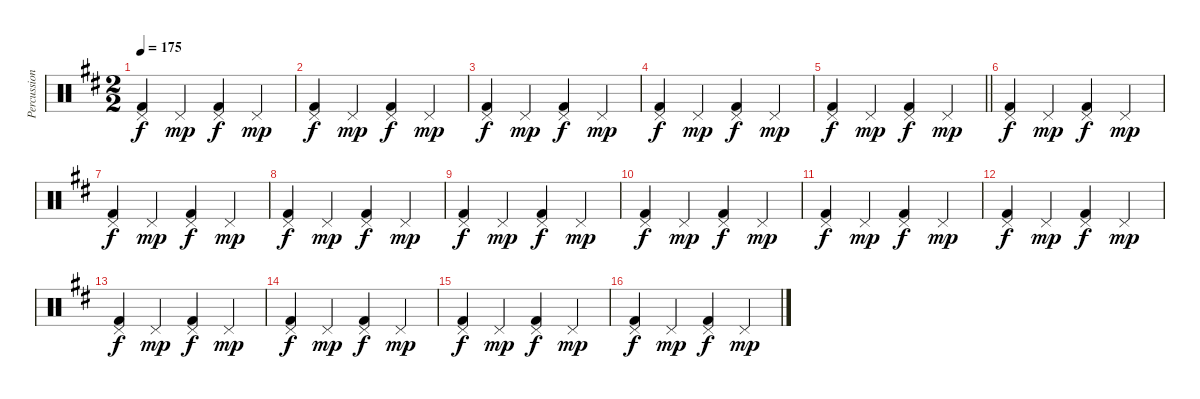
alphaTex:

\track ("Percussion" "Percussion") {instrument percussion}
\staff {score}
\articulation defaults
\ts (2 2)
\tempo 175
\clef neutral
\ks d
("Pedal Hi-Hat (hit)" "Kick (hit) 2").4{dy f} "Pedal Hi-Hat (hit)".4{dy mp} ("Pedal Hi-Hat (hit)" "Kick (hit) 2").4{dy f} "Pedal Hi-Hat (hit)".4{dy mp} |
("Pedal Hi-Hat (hit)" "Kick (hit) 2").4{dy f} "Pedal Hi-Hat (hit)".4{dy mp} ("Pedal Hi-Hat (hit)" "Kick (hit) 2").4{dy f} "Pedal Hi-Hat (hit)".4{dy mp} |
("Pedal Hi-Hat (hit)" "Kick (hit) 2").4{dy f} "Pedal Hi-Hat (hit)".4{dy mp} ("Pedal Hi-Hat (hit)" "Kick (hit) 2").4{dy f} "Pedal Hi-Hat (hit)".4{dy mp} |
("Pedal Hi-Hat (hit)" "Kick (hit) 2").4{dy f} "Pedal Hi-Hat (hit)".4{dy mp} ("Pedal Hi-Hat (hit)" "Kick (hit) 2").4{dy f} "Pedal Hi-Hat (hit)".4{dy mp} |
\barLineRight lightlight
("Pedal Hi-Hat (hit)" "Kick (hit) 2").4{dy f} "Pedal Hi-Hat (hit)".4{dy mp} ("Pedal Hi-Hat (hit)" "Kick (hit) 2").4{dy f} "Pedal Hi-Hat (hit)".4{dy mp} |
("Pedal Hi-Hat (hit)" "Kick (hit) 2").4{dy f} "Pedal Hi-Hat (hit)".4{dy mp} ("Pedal Hi-Hat (hit)" "Kick (hit) 2").4{dy f} "Pedal Hi-Hat (hit)".4{dy mp} |
("Pedal Hi-Hat (hit)" "Kick (hit) 2").4{dy f} "Pedal Hi-Hat (hit)".4{dy mp} ("Pedal Hi-Hat (hit)" "Kick (hit) 2").4{dy f} "Pedal Hi-Hat (hit)".4{dy mp} |
("Pedal Hi-Hat (hit)" "Kick (hit) 2").4{dy f} "Pedal Hi-Hat (hit)".4{dy mp} ("Pedal Hi-Hat (hit)" "Kick (hit) 2").4{dy f} "Pedal Hi-Hat (hit)".4{dy mp} |
("Pedal Hi-Hat (hit)" "Kick (hit) 2").4{dy f} "Pedal Hi-Hat (hit)".4{dy mp} ("Pedal Hi-Hat (hit)" "Kick (hit) 2").4{dy f} "Pedal Hi-Hat (hit)".4{dy mp} |
("Pedal Hi-Hat (hit)" "Kick (hit) 2").4{dy f} "Pedal Hi-Hat (hit)".4{dy mp} ("Pedal Hi-Hat (hit)" "Kick (hit) 2").4{dy f} "Pedal Hi-Hat (hit)".4{dy mp} |
("Pedal Hi-Hat (hit)" "Kick (hit) 2").4{dy f} "Pedal Hi-Hat (hit)".4{dy mp} ("Pedal Hi-Hat (hit)" "Kick (hit) 2").4{dy f} "Pedal Hi-Hat (hit)".4{dy mp} |
("Pedal Hi-Hat (hit)" "Kick (hit) 2").4{dy f} "Pedal Hi-Hat (hit)".4{dy mp} ("Pedal Hi-Hat (hit)" "Kick (hit) 2").4{dy f} "Pedal Hi-Hat (hit)".4{dy mp} |
("Pedal Hi-Hat (hit)" "Kick (hit) 2").4{dy f} "Pedal Hi-Hat (hit)".4{dy mp} ("Pedal Hi-Hat (hit)" "Kick (hit) 2").4{dy f} "Pedal Hi-Hat (hit)".4{dy mp} |
("Pedal Hi-Hat (hit)" "Kick (hit) 2").4{dy f} "Pedal Hi-Hat (hit)".4{dy mp} ("Pedal Hi-Hat (hit)" "Kick (hit) 2").4{dy f} "Pedal Hi-Hat (hit)".4{dy mp} |
("Pedal Hi-Hat (hit)" "Kick (hit) 2").4{dy f} "Pedal Hi-Hat (hit)".4{dy mp} ("Pedal Hi-Hat (hit)" "Kick (hit) 2").4{dy f} "Pedal Hi-Hat (hit)".4{dy mp} |
("Pedal Hi-Hat (hit)" "Kick (hit) 2").4{dy f} "Pedal Hi-Hat (hit)".4{dy mp} ("Pedal Hi-Hat (hit)" "Kick (hit) 2").4{dy f} "Pedal Hi-Hat (hit)".4{dy mp}
